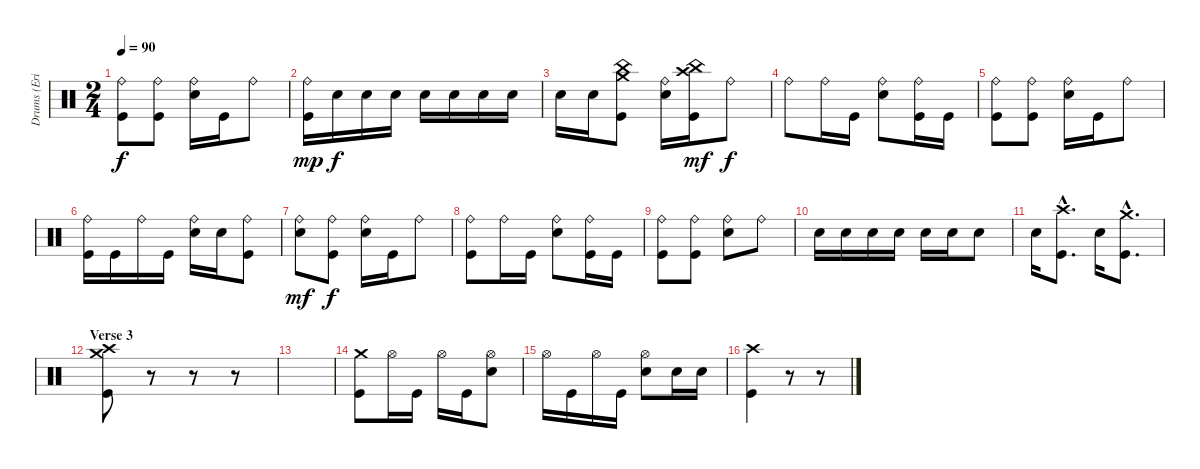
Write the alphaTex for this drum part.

\track ("Drums (Eric Singer)" "Drums (Eri") {instrument percussion}
\staff {score}
\articulation defaults
\ts (2 4)
\tempo 90
\clef neutral
\ks c
("Ride (bell)" "Kick (hit)").8{dy f} ("Ride (bell)" "Kick (hit)").8 ("Ride (bell)" "Electric Snare (hit)").16 "Kick (hit)".16 "Ride (bell)".8 |
("Ride (bell)" "Kick (hit)").16{dy mp} "Electric Snare (hit)".16{dy f} "Electric Snare (hit)".16 "Electric Snare (hit)".16 "Electric Snare (hit)".16 "Electric Snare (hit)".16 "Electric Snare (hit)".16 "Electric Snare (hit)".16 |
"Electric Snare (hit)".16 "Electric Snare (hit)".16 ("Crash medium (hit)" "China (hit)" "Kick (hit)").8 ("Ride (bell)" "Electric Snare (hit)").16 ("China (hit)" "Crash high (hit)" "Kick (hit)").16{dy mf} "Ride (bell)".8{dy f} |
"Ride (bell)".8 "Ride (bell)".16 "Kick (hit)".16 ("Ride (bell)" "Electric Snare (hit)").8 ("Ride (bell)" "Kick (hit)").16 "Kick (hit)".16 |
("Ride (bell)" "Kick (hit)").8 ("Ride (bell)" "Kick (hit)").8 ("Ride (bell)" "Electric Snare (hit)").16 "Kick (hit)".16 "Ride (bell)".8 |
("Ride (bell)" "Kick (hit)").16 "Kick (hit)".16 "Ride (bell)".16 "Kick (hit)".16 ("Ride (bell)" "Electric Snare (hit)").16 "Electric Snare (hit)".16 ("Ride (bell)" "Kick (hit)").8 |
("Ride (bell)" "Electric Snare (hit)").8{dy mf} ("Ride (bell)" "Kick (hit)").8{dy f} ("Ride (bell)" "Electric Snare (hit)").16 "Kick (hit)".16 "Ride (bell)".8 |
("Ride (bell)" "Kick (hit)").8 "Ride (bell)".16 "Kick (hit)".16 ("Ride (bell)" "Electric Snare (hit)").8 ("Ride (bell)" "Kick (hit)").16 "Kick (hit)".16 |
("Ride (bell)" "Kick (hit)").8 ("Ride (bell)" "Kick (hit)").8 ("Ride (bell)" "Electric Snare (hit)").8 "Ride (bell)".8 |
"Electric Snare (hit)".16 "Electric Snare (hit)".16 "Electric Snare (hit)".16 "Electric Snare (hit)".16 "Electric Snare (hit)".16 "Electric Snare (hit)".16 "Electric Snare (hit)".8 |
"Electric Snare (hit)".16 ("Crash high (hit)"{hac} "Kick (hit)"{hac}).8{d} "Electric Snare (hit)".16 ("Crash medium (hit)"{hac} "Kick (hit)"{hac}).8{d} |
\section ("" "Verse 3")
("Crash medium (hit)" "Crash high (hit)" "Kick (hit)").8 r.8 r.8 r.8 |
|
("Crash medium (hit)" "Kick (hit)").8 "Hi-Hat (open)".16 "Kick (hit)".16 "Hi-Hat (open)".16 "Kick (hit)".16 ("Hi-Hat (open)" "Electric Snare (hit)").8 |
"Hi-Hat (open)".16 "Kick (hit)".16 "Hi-Hat (open)".16 "Kick (hit)".16 ("Hi-Hat (open)" "Electric Snare (hit)").8 "Electric Snare (hit)".16 "Electric Snare (hit)".16 |
("Crash high (hit)" "Kick (hit)").4 r.8 r.8
